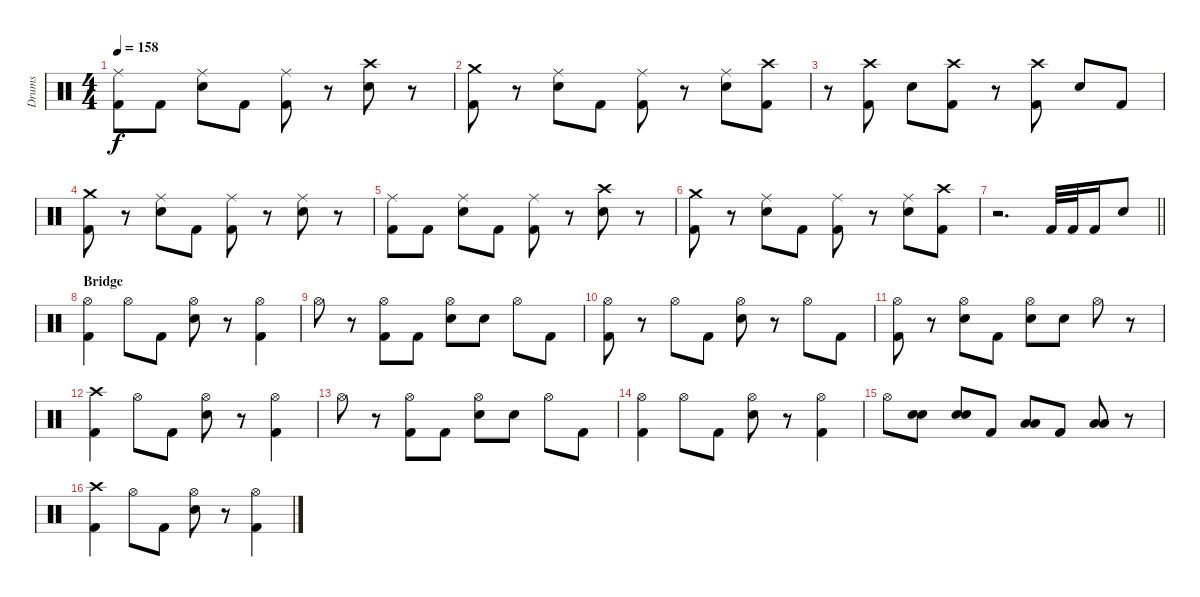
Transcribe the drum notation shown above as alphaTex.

\track ("Drums" "Drums") {instrument percussion}
\staff {score}
\articulation defaults
\ts (4 4)
\tempo 158
\clef neutral
\ks c
("Ride (middle)" "Kick (hit) 2").8{dy f} "Kick (hit) 2".8 ("Ride (middle)" "Electric Snare (hit)").8 "Kick (hit) 2".8 ("Ride (middle)" "Kick (hit) 2").8 r.8 ("Crash high (hit)" "Electric Snare (hit)").8 r.8 |
("Crash medium (hit)" "Kick (hit) 2").8 r.8 ("Ride (middle)" "Electric Snare (hit)").8 "Kick (hit) 2".8 ("Ride (middle)" "Kick (hit) 2").8 r.8 ("Ride (middle)" "Electric Snare (hit)").8 ("Crash high (hit)" "Kick (hit) 2").8 |
r.8 ("Crash high (hit)" "Kick (hit) 2").8 "Electric Snare (hit)".8 ("Crash high (hit)" "Kick (hit) 2").8 r.8 ("Crash high (hit)" "Kick (hit) 2").8 "Electric Snare (hit)".8 "Kick (hit) 2".8 |
("Crash medium (hit)" "Kick (hit) 2").8 r.8 ("Ride (middle)" "Electric Snare (hit)").8 "Kick (hit) 2".8 ("Ride (middle)" "Kick (hit) 2").8 r.8 ("Ride (middle)" "Electric Snare (hit)").8 r.8 |
("Ride (middle)" "Kick (hit) 2").8 "Kick (hit) 2".8 ("Ride (middle)" "Electric Snare (hit)").8 "Kick (hit) 2".8 ("Ride (middle)" "Kick (hit) 2").8 r.8 ("Crash high (hit)" "Electric Snare (hit)").8 r.8 |
("Crash medium (hit)" "Kick (hit) 2").8 r.8 ("Ride (middle)" "Electric Snare (hit)").8 "Kick (hit) 2".8 ("Ride (middle)" "Kick (hit) 2").8 r.8 ("Ride (middle)" "Electric Snare (hit)").8 ("Crash high (hit)" "Kick (hit) 2").8 |
\barLineRight lightlight
r.2{d} "Kick (hit) 2".32 "Kick (hit) 2".32 "Kick (hit) 2".16 "Electric Snare (hit)".8 |
\section ("" "Bridge")
("Hi-Hat (open)" "Kick (hit) 2").4 "Hi-Hat (open)".8 "Kick (hit) 2".8 ("Hi-Hat (open)" "Electric Snare (hit)").8 r.8 ("Hi-Hat (open)" "Kick (hit) 2").4 |
"Hi-Hat (open)".8 r.8 ("Hi-Hat (open)" "Kick (hit) 2").8 "Kick (hit) 2".8 ("Hi-Hat (open)" "Electric Snare (hit)").8 "Electric Snare (hit)".8 "Hi-Hat (open)".8 "Kick (hit) 2".8 |
("Hi-Hat (open)" "Kick (hit) 2").8 r.8 "Hi-Hat (open)".8 "Kick (hit) 2".8 ("Hi-Hat (open)" "Electric Snare (hit)").8 r.8 "Hi-Hat (open)".8 "Kick (hit) 2".8 |
("Hi-Hat (open)" "Kick (hit) 2").8 r.8 ("Hi-Hat (open)" "Electric Snare (hit)").8 "Kick (hit) 2".8 ("Hi-Hat (open)" "Electric Snare (hit)").8 "Electric Snare (hit)".8 "Hi-Hat (open)".8 r.8 |
("Crash high (hit)" "Kick (hit) 2").4 "Hi-Hat (open)".8 "Kick (hit) 2".8 ("Hi-Hat (open)" "Electric Snare (hit)").8 r.8 ("Hi-Hat (open)" "Kick (hit) 2").4 |
"Hi-Hat (open)".8 r.8 ("Hi-Hat (open)" "Kick (hit) 2").8 "Kick (hit) 2".8 ("Hi-Hat (open)" "Electric Snare (hit)").8 "Electric Snare (hit)".8 "Hi-Hat (open)".8 "Kick (hit) 2".8 |
("Hi-Hat (open)" "Kick (hit) 2").4 "Hi-Hat (open)".8 "Kick (hit) 2".8 ("Hi-Hat (open)" "Electric Snare (hit)").8 r.8 ("Hi-Hat (open)" "Kick (hit) 2").4 |
"Hi-Hat (open)".8 ("Electric Snare (hit)" "Electric Snare (hit)").8 ("Electric Snare (hit)" "Electric Snare (hit)").8 "Kick (hit) 2".8 ("Low Tom (hit)" "Low Tom (hit)").8 "Kick (hit) 2".8 ("Low Floor Tom (hit)" "Low Floor Tom (hit)").8 r.8 |
("Crash high (hit)" "Kick (hit) 2").4 "Hi-Hat (open)".8 "Kick (hit) 2".8 ("Hi-Hat (open)" "Electric Snare (hit)").8 r.8 ("Hi-Hat (open)" "Kick (hit) 2").4
